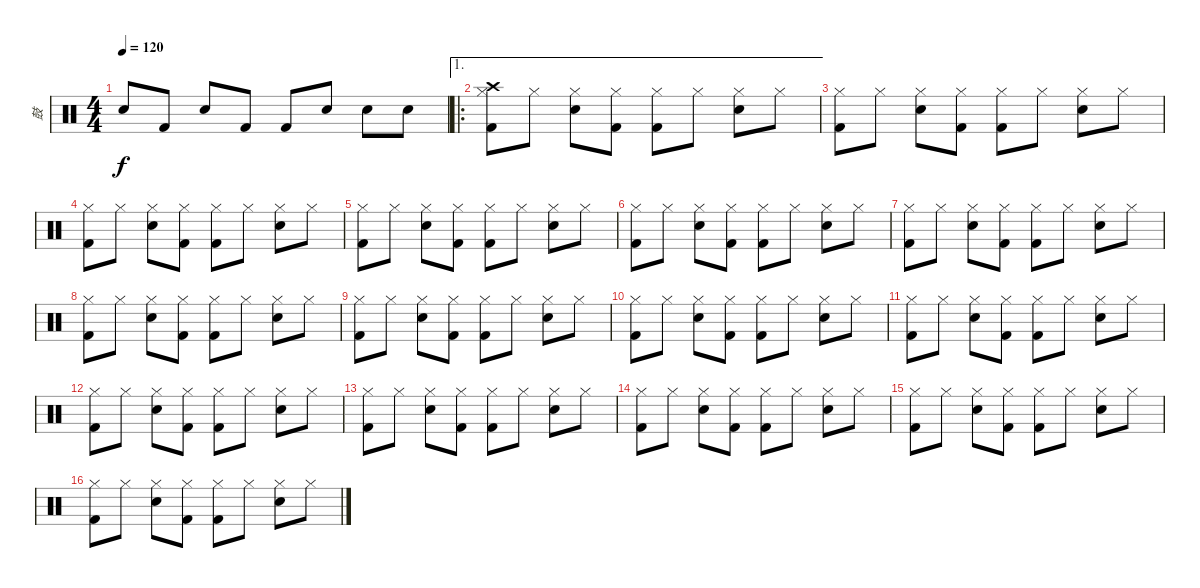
\track ("鼓" "鼓") {instrument percussion}
\staff {score}
\articulation defaults
\ts (4 4)
\tempo 120
\clef neutral
\ks c "Snare (hit)"{t}.8{dy f} "Kick (hit) 2".8 "Snare (hit) 2".8 "Kick (hit) 2".8 "Kick (hit) 2".8 "Snare (hit) 2".8 "Snare (hit) 2".8 "Snare (hit) 2".8
|
\ae 1
\ro
("Hi-Hat (closed)" "Crash high (hit)" "Kick (hit) 2").8 "Hi-Hat (closed)".8 ("Hi-Hat (closed)" "Snare (hit) 2").8 ("Hi-Hat (closed)" "Kick (hit) 2").8 ("Hi-Hat (closed)" "Kick (hit) 2").8 "Hi-Hat (closed)".8 ("Hi-Hat (closed)" "Snare (hit) 2").8 "Hi-Hat (closed)".8 |
("Hi-Hat (closed)" "Kick (hit) 2").8 "Hi-Hat (closed)".8 ("Hi-Hat (closed)" "Snare (hit) 2").8 ("Hi-Hat (closed)" "Kick (hit) 2").8 ("Hi-Hat (closed)" "Kick (hit) 2").8 "Hi-Hat (closed)".8 ("Hi-Hat (closed)" "Snare (hit) 2").8 "Hi-Hat (closed)".8 |
("Hi-Hat (closed)" "Kick (hit) 2").8 "Hi-Hat (closed)".8 ("Hi-Hat (closed)" "Snare (hit) 2").8 ("Hi-Hat (closed)" "Kick (hit) 2").8 ("Hi-Hat (closed)" "Kick (hit) 2").8 "Hi-Hat (closed)".8 ("Hi-Hat (closed)" "Snare (hit) 2").8 "Hi-Hat (closed)".8 |
("Hi-Hat (closed)" "Kick (hit) 2").8 "Hi-Hat (closed)".8 ("Hi-Hat (closed)" "Snare (hit) 2").8 ("Hi-Hat (closed)" "Kick (hit) 2").8 ("Hi-Hat (closed)" "Kick (hit) 2").8 "Hi-Hat (closed)".8 ("Hi-Hat (closed)" "Snare (hit) 2").8 "Hi-Hat (closed)".8 |
("Hi-Hat (closed)" "Kick (hit) 2").8 "Hi-Hat (closed)".8 ("Hi-Hat (closed)" "Snare (hit) 2").8 ("Hi-Hat (closed)" "Kick (hit) 2").8 ("Hi-Hat (closed)" "Kick (hit) 2").8 "Hi-Hat (closed)".8 ("Hi-Hat (closed)" "Snare (hit) 2").8 "Hi-Hat (closed)".8 |
("Hi-Hat (closed)" "Kick (hit) 2").8 "Hi-Hat (closed)".8 ("Hi-Hat (closed)" "Snare (hit) 2").8 ("Hi-Hat (closed)" "Kick (hit) 2").8 ("Hi-Hat (closed)" "Kick (hit) 2").8 "Hi-Hat (closed)".8 ("Hi-Hat (closed)" "Snare (hit) 2").8 "Hi-Hat (closed)".8 |
("Hi-Hat (closed)" "Kick (hit) 2").8 "Hi-Hat (closed)".8 ("Hi-Hat (closed)" "Snare (hit) 2").8 ("Hi-Hat (closed)" "Kick (hit) 2").8 ("Hi-Hat (closed)" "Kick (hit) 2").8 "Hi-Hat (closed)".8 ("Hi-Hat (closed)" "Snare (hit) 2").8 "Hi-Hat (closed)".8 |
("Hi-Hat (closed)" "Kick (hit) 2").8 "Hi-Hat (closed)".8 ("Hi-Hat (closed)" "Snare (hit) 2").8 ("Hi-Hat (closed)" "Kick (hit) 2").8 ("Hi-Hat (closed)" "Kick (hit) 2").8 "Hi-Hat (closed)".8 ("Hi-Hat (closed)" "Snare (hit) 2").8 "Hi-Hat (closed)".8 |
("Hi-Hat (closed)" "Kick (hit) 2").8 "Hi-Hat (closed)".8 ("Hi-Hat (closed)" "Snare (hit) 2").8 ("Hi-Hat (closed)" "Kick (hit) 2").8 ("Hi-Hat (closed)" "Kick (hit) 2").8 "Hi-Hat (closed)".8 ("Hi-Hat (closed)" "Snare (hit) 2").8 "Hi-Hat (closed)".8 |
("Hi-Hat (closed)" "Kick (hit) 2").8 "Hi-Hat (closed)".8 ("Hi-Hat (closed)" "Snare (hit) 2").8 ("Hi-Hat (closed)" "Kick (hit) 2").8 ("Hi-Hat (closed)" "Kick (hit) 2").8 "Hi-Hat (closed)".8 ("Hi-Hat (closed)" "Snare (hit) 2").8 "Hi-Hat (closed)".8 |
("Hi-Hat (closed)" "Kick (hit) 2").8 "Hi-Hat (closed)".8 ("Hi-Hat (closed)" "Snare (hit) 2").8 ("Hi-Hat (closed)" "Kick (hit) 2").8 ("Hi-Hat (closed)" "Kick (hit) 2").8 "Hi-Hat (closed)".8 ("Hi-Hat (closed)" "Snare (hit) 2").8 "Hi-Hat (closed)".8 |
("Hi-Hat (closed)" "Kick (hit) 2").8 "Hi-Hat (closed)".8 ("Hi-Hat (closed)" "Snare (hit) 2").8 ("Hi-Hat (closed)" "Kick (hit) 2").8 ("Hi-Hat (closed)" "Kick (hit) 2").8 "Hi-Hat (closed)".8 ("Hi-Hat (closed)" "Snare (hit) 2").8 "Hi-Hat (closed)".8 |
("Hi-Hat (closed)" "Kick (hit) 2").8 "Hi-Hat (closed)".8 ("Hi-Hat (closed)" "Snare (hit) 2").8 ("Hi-Hat (closed)" "Kick (hit) 2").8 ("Hi-Hat (closed)" "Kick (hit) 2").8 "Hi-Hat (closed)".8 ("Hi-Hat (closed)" "Snare (hit) 2").8 "Hi-Hat (closed)".8 |
("Hi-Hat (closed)" "Kick (hit) 2").8 "Hi-Hat (closed)".8 ("Hi-Hat (closed)" "Snare (hit) 2").8 ("Hi-Hat (closed)" "Kick (hit) 2").8 ("Hi-Hat (closed)" "Kick (hit) 2").8 "Hi-Hat (closed)".8 ("Hi-Hat (closed)" "Snare (hit) 2").8 "Hi-Hat (closed)".8 |
("Hi-Hat (closed)" "Kick (hit) 2").8 "Hi-Hat (closed)".8 ("Hi-Hat (closed)" "Snare (hit) 2").8 ("Hi-Hat (closed)" "Kick (hit) 2").8 ("Hi-Hat (closed)" "Kick (hit) 2").8 "Hi-Hat (closed)".8 ("Hi-Hat (closed)" "Snare (hit) 2").8 "Hi-Hat (closed)".8
